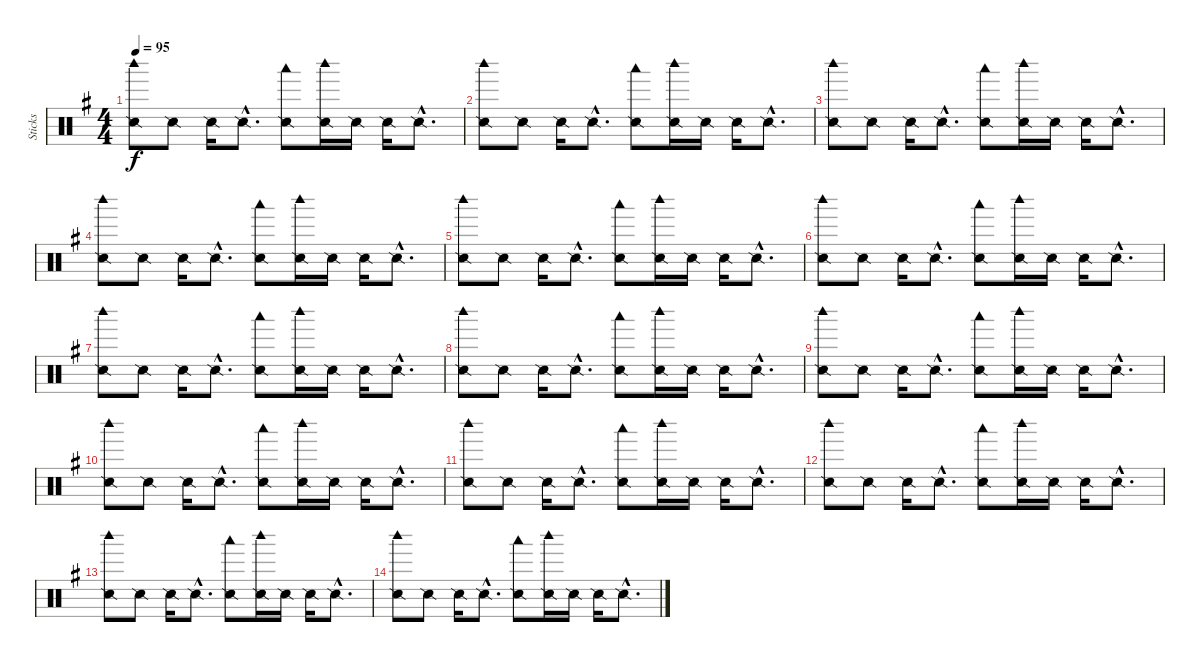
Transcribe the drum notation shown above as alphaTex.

\track ("Sticks" "Sticks") {instrument percussion}
\staff {score}
\articulation defaults
\ts (4 4)
\tempo 95
\clef neutral
\ks g
("Snare (side stick) 2" "Woodblock high (hit)").8{dy f} "Snare (side stick) 2".8 "Snare (side stick) 2".16 "Snare (side stick) 2"{hac}.8{d} ("Snare (side stick) 2" "Woodblock low (hit)").8 ("Snare (side stick) 2" "Woodblock high (hit)").16 "Snare (side stick) 2".16 "Snare (side stick) 2".16 "Snare (side stick) 2"{hac}.8{d} |
("Snare (side stick) 2" "Woodblock high (hit)").8 "Snare (side stick) 2".8 "Snare (side stick) 2".16 "Snare (side stick) 2"{hac}.8{d} ("Snare (side stick) 2" "Woodblock low (hit)").8 ("Snare (side stick) 2" "Woodblock high (hit)").16 "Snare (side stick) 2".16 "Snare (side stick) 2".16 "Snare (side stick) 2"{hac}.8{d} |
("Snare (side stick) 2" "Woodblock high (hit)").8 "Snare (side stick) 2".8 "Snare (side stick) 2".16 "Snare (side stick) 2"{hac}.8{d} ("Snare (side stick) 2" "Woodblock low (hit)").8 ("Snare (side stick) 2" "Woodblock high (hit)").16 "Snare (side stick) 2".16 "Snare (side stick) 2".16 "Snare (side stick) 2"{hac}.8{d} |
("Snare (side stick) 2" "Woodblock high (hit)").8 "Snare (side stick) 2".8 "Snare (side stick) 2".16 "Snare (side stick) 2"{hac}.8{d} ("Snare (side stick) 2" "Woodblock low (hit)").8 ("Snare (side stick) 2" "Woodblock high (hit)").16 "Snare (side stick) 2".16 "Snare (side stick) 2".16 "Snare (side stick) 2"{hac}.8{d} |
("Snare (side stick) 2" "Woodblock high (hit)").8 "Snare (side stick) 2".8 "Snare (side stick) 2".16 "Snare (side stick) 2"{hac}.8{d} ("Snare (side stick) 2" "Woodblock low (hit)").8 ("Snare (side stick) 2" "Woodblock high (hit)").16 "Snare (side stick) 2".16 "Snare (side stick) 2".16 "Snare (side stick) 2"{hac}.8{d} |
("Snare (side stick) 2" "Woodblock high (hit)").8 "Snare (side stick) 2".8 "Snare (side stick) 2".16 "Snare (side stick) 2"{hac}.8{d} ("Snare (side stick) 2" "Woodblock low (hit)").8 ("Snare (side stick) 2" "Woodblock high (hit)").16 "Snare (side stick) 2".16 "Snare (side stick) 2".16 "Snare (side stick) 2"{hac}.8{d} |
("Snare (side stick) 2" "Woodblock high (hit)").8 "Snare (side stick) 2".8 "Snare (side stick) 2".16 "Snare (side stick) 2"{hac}.8{d} ("Snare (side stick) 2" "Woodblock low (hit)").8 ("Snare (side stick) 2" "Woodblock high (hit)").16 "Snare (side stick) 2".16 "Snare (side stick) 2".16 "Snare (side stick) 2"{hac}.8{d} |
("Snare (side stick) 2" "Woodblock high (hit)").8 "Snare (side stick) 2".8 "Snare (side stick) 2".16 "Snare (side stick) 2"{hac}.8{d} ("Snare (side stick) 2" "Woodblock low (hit)").8 ("Snare (side stick) 2" "Woodblock high (hit)").16 "Snare (side stick) 2".16 "Snare (side stick) 2".16 "Snare (side stick) 2"{hac}.8{d} |
("Snare (side stick) 2" "Woodblock high (hit)").8 "Snare (side stick) 2".8 "Snare (side stick) 2".16 "Snare (side stick) 2"{hac}.8{d} ("Snare (side stick) 2" "Woodblock low (hit)").8 ("Snare (side stick) 2" "Woodblock high (hit)").16 "Snare (side stick) 2".16 "Snare (side stick) 2".16 "Snare (side stick) 2"{hac}.8{d} |
("Snare (side stick) 2" "Woodblock high (hit)").8 "Snare (side stick) 2".8 "Snare (side stick) 2".16 "Snare (side stick) 2"{hac}.8{d} ("Snare (side stick) 2" "Woodblock low (hit)").8 ("Snare (side stick) 2" "Woodblock high (hit)").16 "Snare (side stick) 2".16 "Snare (side stick) 2".16 "Snare (side stick) 2"{hac}.8{d} |
("Snare (side stick) 2" "Woodblock high (hit)").8 "Snare (side stick) 2".8 "Snare (side stick) 2".16 "Snare (side stick) 2"{hac}.8{d} ("Snare (side stick) 2" "Woodblock low (hit)").8 ("Snare (side stick) 2" "Woodblock high (hit)").16 "Snare (side stick) 2".16 "Snare (side stick) 2".16 "Snare (side stick) 2"{hac}.8{d} |
("Snare (side stick) 2" "Woodblock high (hit)").8 "Snare (side stick) 2".8 "Snare (side stick) 2".16 "Snare (side stick) 2"{hac}.8{d} ("Snare (side stick) 2" "Woodblock low (hit)").8 ("Snare (side stick) 2" "Woodblock high (hit)").16 "Snare (side stick) 2".16 "Snare (side stick) 2".16 "Snare (side stick) 2"{hac}.8{d} |
("Snare (side stick) 2" "Woodblock high (hit)").8 "Snare (side stick) 2".8 "Snare (side stick) 2".16 "Snare (side stick) 2"{hac}.8{d} ("Snare (side stick) 2" "Woodblock low (hit)").8 ("Snare (side stick) 2" "Woodblock high (hit)").16 "Snare (side stick) 2".16 "Snare (side stick) 2".16 "Snare (side stick) 2"{hac}.8{d} |
("Snare (side stick) 2" "Woodblock high (hit)").8 "Snare (side stick) 2".8 "Snare (side stick) 2".16 "Snare (side stick) 2"{hac}.8{d} ("Snare (side stick) 2" "Woodblock low (hit)").8 ("Snare (side stick) 2" "Woodblock high (hit)").16 "Snare (side stick) 2".16 "Snare (side stick) 2".16 "Snare (side stick) 2"{hac}.8{d}
